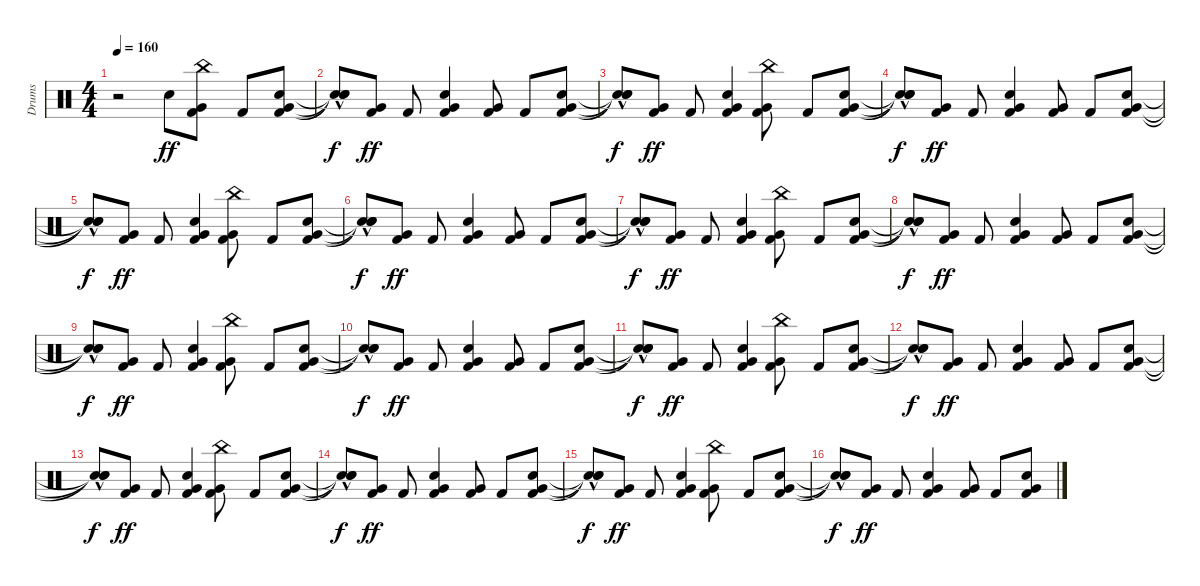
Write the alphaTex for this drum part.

\track ("Drums" "Drums") {instrument percussion}
\staff {score}
\articulation defaults
\ts (4 4)
\tempo 160
\clef neutral
\ks c
r.2{dy ff} "Snare (hit) 2".8 ("Kick (hit) 2" "Very Low Tom (hit)" "China (hit)").8 "Kick (hit) 2".8 ("Kick (hit) 2" "Snare (hit) 2" "Very Low Tom (hit)").8 |
("Snare (hit)"{hac t} "Snare (hit)"{hac t} "Snare (hit)"{hac t}).8{dy f} ("Kick (hit) 2" "Very Low Tom (hit)").8{dy ff} "Kick (hit) 2".8 ("Kick (hit) 2" "Snare (hit) 2" "Very Low Tom (hit)").4 ("Kick (hit) 2" "Very Low Tom (hit)").8 "Kick (hit) 2".8 ("Kick (hit) 2" "Snare (hit) 2" "Very Low Tom (hit)").8 |
("Snare (hit)"{hac t} "Snare (hit)"{hac t} "Snare (hit)"{hac t}).8{dy f} ("Kick (hit) 2" "Very Low Tom (hit)").8{dy ff} "Kick (hit) 2".8 ("Kick (hit) 2" "Snare (hit) 2" "Very Low Tom (hit)").4 ("Kick (hit) 2" "Very Low Tom (hit)" "China (hit)").8 "Kick (hit) 2".8 ("Kick (hit) 2" "Snare (hit) 2" "Very Low Tom (hit)").8 |
("Snare (hit)"{hac t} "Snare (hit)"{hac t} "Snare (hit)"{hac t}).8{dy f} ("Kick (hit) 2" "Very Low Tom (hit)").8{dy ff} "Kick (hit) 2".8 ("Kick (hit) 2" "Snare (hit) 2" "Very Low Tom (hit)").4 ("Kick (hit) 2" "Very Low Tom (hit)").8 "Kick (hit) 2".8 ("Kick (hit) 2" "Snare (hit) 2" "Very Low Tom (hit)").8 |
("Snare (hit)"{hac t} "Snare (hit)"{hac t} "Snare (hit)"{hac t}).8{dy f} ("Kick (hit) 2" "Very Low Tom (hit)").8{dy ff} "Kick (hit) 2".8 ("Kick (hit) 2" "Snare (hit) 2" "Very Low Tom (hit)").4 ("Kick (hit) 2" "Very Low Tom (hit)" "China (hit)").8 "Kick (hit) 2".8 ("Kick (hit) 2" "Snare (hit) 2" "Very Low Tom (hit)").8 |
("Snare (hit)"{hac t} "Snare (hit)"{hac t} "Snare (hit)"{hac t}).8{dy f} ("Kick (hit) 2" "Very Low Tom (hit)").8{dy ff} "Kick (hit) 2".8 ("Kick (hit) 2" "Snare (hit) 2" "Very Low Tom (hit)").4 ("Kick (hit) 2" "Very Low Tom (hit)").8 "Kick (hit) 2".8 ("Kick (hit) 2" "Snare (hit) 2" "Very Low Tom (hit)").8 |
("Snare (hit)"{hac t} "Snare (hit)"{hac t} "Snare (hit)"{hac t}).8{dy f} ("Kick (hit) 2" "Very Low Tom (hit)").8{dy ff} "Kick (hit) 2".8 ("Kick (hit) 2" "Snare (hit) 2" "Very Low Tom (hit)").4 ("Kick (hit) 2" "Very Low Tom (hit)" "China (hit)").8 "Kick (hit) 2".8 ("Kick (hit) 2" "Snare (hit) 2" "Very Low Tom (hit)").8 |
("Snare (hit)"{hac t} "Snare (hit)"{hac t} "Snare (hit)"{hac t}).8{dy f} ("Kick (hit) 2" "Very Low Tom (hit)").8{dy ff} "Kick (hit) 2".8 ("Kick (hit) 2" "Snare (hit) 2" "Very Low Tom (hit)").4 ("Kick (hit) 2" "Very Low Tom (hit)").8 "Kick (hit) 2".8 ("Kick (hit) 2" "Snare (hit) 2" "Very Low Tom (hit)").8 |
("Snare (hit)"{hac t} "Snare (hit)"{hac t} "Snare (hit)"{hac t}).8{dy f} ("Kick (hit) 2" "Very Low Tom (hit)").8{dy ff} "Kick (hit) 2".8 ("Kick (hit) 2" "Snare (hit) 2" "Very Low Tom (hit)").4 ("Kick (hit) 2" "Very Low Tom (hit)" "China (hit)").8 "Kick (hit) 2".8 ("Kick (hit) 2" "Snare (hit) 2" "Very Low Tom (hit)").8 |
("Snare (hit)"{hac t} "Snare (hit)"{hac t} "Snare (hit)"{hac t}).8{dy f} ("Kick (hit) 2" "Very Low Tom (hit)").8{dy ff} "Kick (hit) 2".8 ("Kick (hit) 2" "Snare (hit) 2" "Very Low Tom (hit)").4 ("Kick (hit) 2" "Very Low Tom (hit)").8 "Kick (hit) 2".8 ("Kick (hit) 2" "Snare (hit) 2" "Very Low Tom (hit)").8 |
("Snare (hit)"{hac t} "Snare (hit)"{hac t} "Snare (hit)"{hac t}).8{dy f} ("Kick (hit) 2" "Very Low Tom (hit)").8{dy ff} "Kick (hit) 2".8 ("Kick (hit) 2" "Snare (hit) 2" "Very Low Tom (hit)").4 ("Kick (hit) 2" "Very Low Tom (hit)" "China (hit)").8 "Kick (hit) 2".8 ("Kick (hit) 2" "Snare (hit) 2" "Very Low Tom (hit)").8 |
("Snare (hit)"{hac t} "Snare (hit)"{hac t} "Snare (hit)"{hac t}).8{dy f} ("Kick (hit) 2" "Very Low Tom (hit)").8{dy ff} "Kick (hit) 2".8 ("Kick (hit) 2" "Snare (hit) 2" "Very Low Tom (hit)").4 ("Kick (hit) 2" "Very Low Tom (hit)").8 "Kick (hit) 2".8 ("Kick (hit) 2" "Snare (hit) 2" "Very Low Tom (hit)").8 |
("Snare (hit)"{hac t} "Snare (hit)"{hac t} "Snare (hit)"{hac t}).8{dy f} ("Kick (hit) 2" "Very Low Tom (hit)").8{dy ff} "Kick (hit) 2".8 ("Kick (hit) 2" "Snare (hit) 2" "Very Low Tom (hit)").4 ("Kick (hit) 2" "Very Low Tom (hit)" "China (hit)").8 "Kick (hit) 2".8 ("Kick (hit) 2" "Snare (hit) 2" "Very Low Tom (hit)").8 |
("Snare (hit)"{hac t} "Snare (hit)"{hac t} "Snare (hit)"{hac t}).8{dy f} ("Kick (hit) 2" "Very Low Tom (hit)").8{dy ff} "Kick (hit) 2".8 ("Kick (hit) 2" "Snare (hit) 2" "Very Low Tom (hit)").4 ("Kick (hit) 2" "Very Low Tom (hit)").8 "Kick (hit) 2".8 ("Kick (hit) 2" "Snare (hit) 2" "Very Low Tom (hit)").8 |
("Snare (hit)"{hac t} "Snare (hit)"{hac t} "Snare (hit)"{hac t}).8{dy f} ("Kick (hit) 2" "Very Low Tom (hit)").8{dy ff} "Kick (hit) 2".8 ("Kick (hit) 2" "Snare (hit) 2" "Very Low Tom (hit)").4 ("Kick (hit) 2" "Very Low Tom (hit)" "China (hit)").8 "Kick (hit) 2".8 ("Kick (hit) 2" "Snare (hit) 2" "Very Low Tom (hit)").8 |
("Snare (hit)"{hac t} "Snare (hit)"{hac t} "Snare (hit)"{hac t}).8{dy f} ("Kick (hit) 2" "Very Low Tom (hit)").8{dy ff} "Kick (hit) 2".8 ("Kick (hit) 2" "Snare (hit) 2" "Very Low Tom (hit)").4 ("Kick (hit) 2" "Very Low Tom (hit)").8 "Kick (hit) 2".8 ("Kick (hit) 2" "Snare (hit) 2" "Very Low Tom (hit)").8
